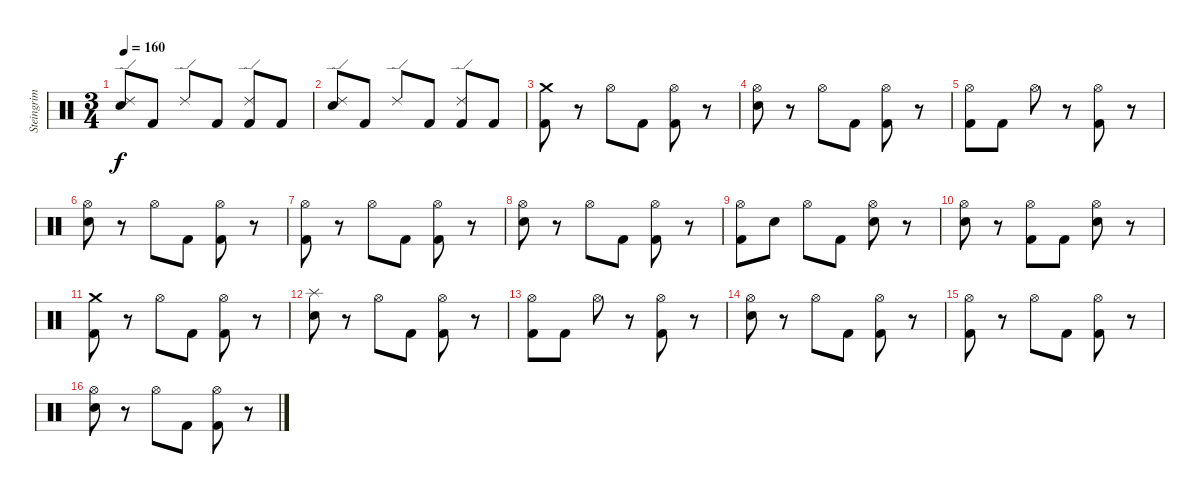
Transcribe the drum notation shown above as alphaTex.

\track ("Steingrim Trommur" "Steingrim ") {instrument percussion}
\staff {score}
\articulation defaults
\ts (3 4)
\tempo 160
\clef neutral
\ks c
("Ride (edge) 2" "Electric Snare (hit)").8{dy f} "Kick (hit) 2".8 "Ride (edge) 2".8 "Kick (hit) 2".8 ("Ride (edge) 2" "Kick (hit) 2").8 "Kick (hit) 2".8 |
("Ride (edge) 2" "Electric Snare (hit)").8 "Kick (hit) 2".8 "Ride (edge) 2".8 "Kick (hit) 2".8 ("Ride (edge) 2" "Kick (hit) 2").8 "Kick (hit) 2".8 |
("Crash medium (hit)" "Kick (hit) 2").8 r.8 "Hi-Hat (open)".8 "Kick (hit) 2".8 ("Hi-Hat (open)" "Kick (hit) 2").8 r.8 |
("Hi-Hat (open)" "Electric Snare (hit)").8 r.8 "Hi-Hat (open)".8 "Kick (hit) 2".8 ("Hi-Hat (open)" "Kick (hit) 2").8 r.8 |
("Hi-Hat (open)" "Kick (hit) 2").8 "Kick (hit) 2".8 "Hi-Hat (open)".8 r.8 ("Hi-Hat (open)" "Kick (hit) 2").8 r.8 |
("Hi-Hat (open)" "Electric Snare (hit)").8 r.8 "Hi-Hat (open)".8 "Kick (hit) 2".8 ("Hi-Hat (open)" "Kick (hit) 2").8 r.8 |
("Hi-Hat (open)" "Kick (hit) 2").8 r.8 "Hi-Hat (open)".8 "Kick (hit) 2".8 ("Hi-Hat (open)" "Kick (hit) 2").8 r.8 |
("Hi-Hat (open)" "Electric Snare (hit)").8 r.8 "Hi-Hat (open)".8 "Kick (hit) 2".8 ("Hi-Hat (open)" "Kick (hit) 2").8 r.8 |
("Hi-Hat (open)" "Kick (hit) 2").8 "Electric Snare (hit)".8 "Hi-Hat (open)".8 "Kick (hit) 2".8 ("Hi-Hat (open)" "Electric Snare (hit)").8 r.8 |
("Hi-Hat (open)" "Electric Snare (hit)").8 r.8 ("Hi-Hat (open)" "Kick (hit) 2").8 "Kick (hit) 2".8 ("Hi-Hat (open)" "Electric Snare (hit)").8 r.8 |
("Crash medium (hit)" "Kick (hit) 2").8 r.8 "Hi-Hat (open)".8 "Kick (hit) 2".8 ("Hi-Hat (open)" "Kick (hit) 2").8 r.8 |
("Splash (hit)" "Electric Snare (hit)").8 r.8 "Hi-Hat (open)".8 "Kick (hit) 2".8 ("Hi-Hat (open)" "Kick (hit) 2").8 r.8 |
("Hi-Hat (open)" "Kick (hit) 2").8 "Kick (hit) 2".8 "Hi-Hat (open)".8 r.8 ("Hi-Hat (open)" "Kick (hit) 2").8 r.8 |
("Hi-Hat (open)" "Electric Snare (hit)").8 r.8 "Hi-Hat (open)".8 "Kick (hit) 2".8 ("Hi-Hat (open)" "Kick (hit) 2").8 r.8 |
("Hi-Hat (open)" "Kick (hit) 2").8 r.8 "Hi-Hat (open)".8 "Kick (hit) 2".8 ("Hi-Hat (open)" "Kick (hit) 2").8 r.8 |
("Hi-Hat (open)" "Electric Snare (hit)").8 r.8 "Hi-Hat (open)".8 "Kick (hit) 2".8 ("Hi-Hat (open)" "Kick (hit) 2").8 r.8
